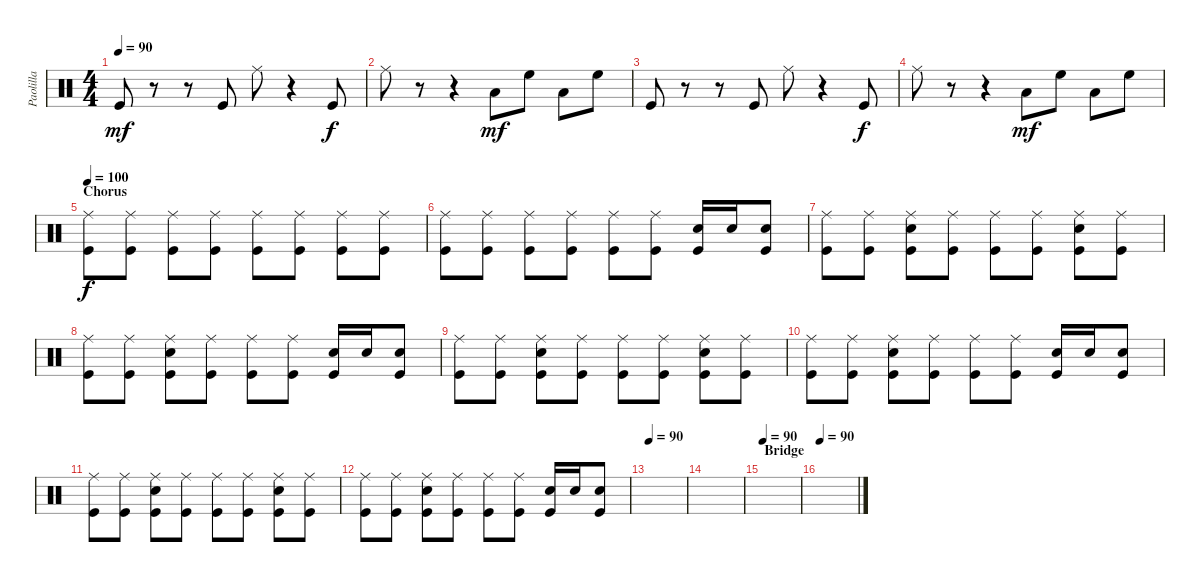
\track ("Paolilla" "Paolilla") {instrument percussion}
\staff {score}
\articulation defaults
\ts (4 4)
\tempo 90
\clef neutral
\ks c "Kick (hit)".8{dy mf}
r.8 r.8 "Kick (hit)".8 "Ride (middle)".8 r.4 "Kick (hit)".8{dy f} |
"Ride (middle)".8 r.8 r.4 "Low Tom (hit)".8{dy mf} "High Floor Tom (hit)".8 "Low Tom (hit)".8 "High Floor Tom (hit)".8 |
"Kick (hit)".8 r.8 r.8 "Kick (hit)".8 "Ride (middle)".8 r.4 "Kick (hit)".8{dy f} |
"Ride (middle)".8 r.8 r.4 "Low Tom (hit)".8{dy mf} "High Floor Tom (hit)".8 "Low Tom (hit)".8 "High Floor Tom (hit)".8 |
\section ("" "Chorus")
\tempo 100
("Ride (middle)" "Kick (hit)").8{dy f} ("Ride (middle)" "Kick (hit)").8 ("Ride (middle)" "Kick (hit)").8 ("Ride (middle)" "Kick (hit)").8 ("Ride (middle)" "Kick (hit)").8 ("Ride (middle)" "Kick (hit)").8 ("Ride (middle)" "Kick (hit)").8 ("Ride (middle)" "Kick (hit)").8 |
("Ride (middle)" "Kick (hit)").8 ("Ride (middle)" "Kick (hit)").8 ("Ride (middle)" "Kick (hit)").8 ("Ride (middle)" "Kick (hit)").8 ("Ride (middle)" "Kick (hit)").8 ("Ride (middle)" "Kick (hit)").8 ("Snare (hit) 2" "Kick (hit)").16 "Snare (hit) 2".16 ("Snare (hit) 2" "Kick (hit)").8 |
("Ride (middle)" "Kick (hit)").8 ("Ride (middle)" "Kick (hit)").8 ("Snare (hit) 2" "Ride (middle)" "Kick (hit)").8 ("Ride (middle)" "Kick (hit)").8 ("Ride (middle)" "Kick (hit)").8 ("Ride (middle)" "Kick (hit)").8 ("Snare (hit) 2" "Ride (middle)" "Kick (hit)").8 ("Ride (middle)" "Kick (hit)").8 |
("Ride (middle)" "Kick (hit)").8 ("Ride (middle)" "Kick (hit)").8 ("Snare (hit) 2" "Ride (middle)" "Kick (hit)").8 ("Ride (middle)" "Kick (hit)").8 ("Ride (middle)" "Kick (hit)").8 ("Ride (middle)" "Kick (hit)").8 ("Snare (hit) 2" "Kick (hit)").16 "Snare (hit) 2".16 ("Snare (hit) 2" "Kick (hit)").8 |
("Ride (middle)" "Kick (hit)").8 ("Ride (middle)" "Kick (hit)").8 ("Snare (hit) 2" "Ride (middle)" "Kick (hit)").8 ("Ride (middle)" "Kick (hit)").8 ("Ride (middle)" "Kick (hit)").8 ("Ride (middle)" "Kick (hit)").8 ("Snare (hit) 2" "Ride (middle)" "Kick (hit)").8 ("Ride (middle)" "Kick (hit)").8 |
("Ride (middle)" "Kick (hit)").8 ("Ride (middle)" "Kick (hit)").8 ("Snare (hit) 2" "Ride (middle)" "Kick (hit)").8 ("Ride (middle)" "Kick (hit)").8 ("Ride (middle)" "Kick (hit)").8 ("Ride (middle)" "Kick (hit)").8 ("Snare (hit) 2" "Kick (hit)").16 "Snare (hit) 2".16 ("Snare (hit) 2" "Kick (hit)").8 |
("Ride (middle)" "Kick (hit)").8 ("Ride (middle)" "Kick (hit)").8 ("Snare (hit) 2" "Ride (middle)" "Kick (hit)").8 ("Ride (middle)" "Kick (hit)").8 ("Ride (middle)" "Kick (hit)").8 ("Ride (middle)" "Kick (hit)").8 ("Snare (hit) 2" "Ride (middle)" "Kick (hit)").8 ("Ride (middle)" "Kick (hit)").8 |
("Ride (middle)" "Kick (hit)").8 ("Ride (middle)" "Kick (hit)").8 ("Snare (hit) 2" "Ride (middle)" "Kick (hit)").8 ("Ride (middle)" "Kick (hit)").8 ("Ride (middle)" "Kick (hit)").8 ("Ride (middle)" "Kick (hit)").8 ("Snare (hit) 2" "Kick (hit)").16 "Snare (hit) 2".16 ("Snare (hit) 2" "Kick (hit)").8 |
\tempo 90
|
|
\section ("" "Bridge")
\tempo 90
|
\tempo 90
